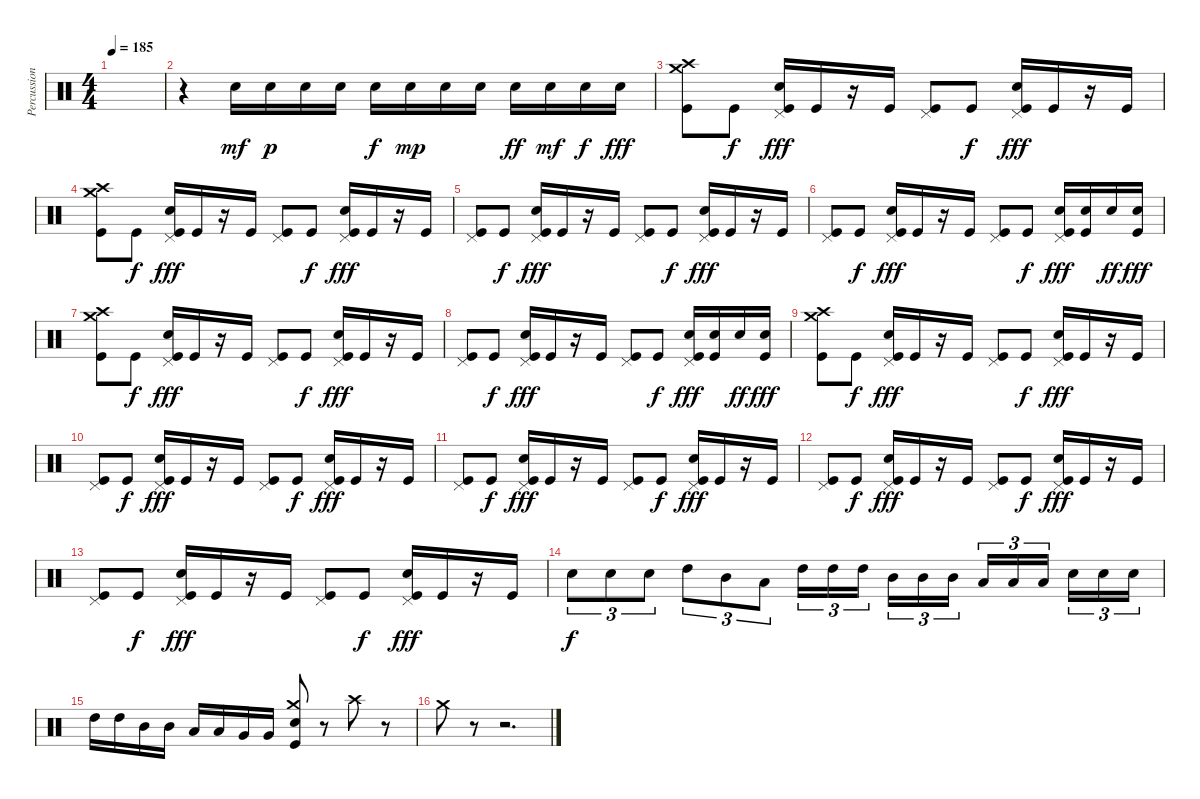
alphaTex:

\track ("Percussions" "Percussion") {instrument percussion}
\staff {score}
\articulation defaults
\ts (4 4)
\tempo 185
\clef neutral
\ks c
|
r.4 "Electric Snare (hit)".16{dy mf} "Electric Snare (hit)".16{dy p} "Electric Snare (hit)".16 "Electric Snare (hit)".16 "Electric Snare (hit)".16{dy f} "Electric Snare (hit)".16{dy mp} "Electric Snare (hit)".16 "Electric Snare (hit)".16 "Electric Snare (hit)".16{dy ff} "Electric Snare (hit)".16{dy mf} "Electric Snare (hit)".16{dy f} "Electric Snare (hit)".16{dy fff} |
("Crash medium (hit)" "Crash high (hit)" "Kick (hit)").8 "Kick (hit)".8{dy f} ("Pedal Hi-Hat (hit)" "Electric Snare (hit)" "Kick (hit)").16{dy fff} "Kick (hit)".16 r.16 "Kick (hit)".16 ("Pedal Hi-Hat (hit)" "Kick (hit)").8 "Kick (hit)".8{dy f} ("Pedal Hi-Hat (hit)" "Electric Snare (hit)" "Kick (hit)").16{dy fff} "Kick (hit)".16 r.16 "Kick (hit)".16 |
("Crash medium (hit)" "Crash high (hit)" "Kick (hit)").8 "Kick (hit)".8{dy f} ("Pedal Hi-Hat (hit)" "Electric Snare (hit)" "Kick (hit)").16{dy fff} "Kick (hit)".16 r.16 "Kick (hit)".16 ("Pedal Hi-Hat (hit)" "Kick (hit)").8 "Kick (hit)".8{dy f} ("Pedal Hi-Hat (hit)" "Electric Snare (hit)" "Kick (hit)").16{dy fff} "Kick (hit)".16 r.16 "Kick (hit)".16 |
("Pedal Hi-Hat (hit)" "Kick (hit)").8 "Kick (hit)".8{dy f} ("Pedal Hi-Hat (hit)" "Electric Snare (hit)" "Kick (hit)").16{dy fff} "Kick (hit)".16 r.16 "Kick (hit)".16 ("Pedal Hi-Hat (hit)" "Kick (hit)").8 "Kick (hit)".8{dy f} ("Pedal Hi-Hat (hit)" "Electric Snare (hit)" "Kick (hit)").16{dy fff} "Kick (hit)".16 r.16 "Kick (hit)".16 |
("Pedal Hi-Hat (hit)" "Kick (hit)").8 "Kick (hit)".8{dy f} ("Pedal Hi-Hat (hit)" "Electric Snare (hit)" "Kick (hit)").16{dy fff} "Kick (hit)".16 r.16 "Kick (hit)".16 ("Pedal Hi-Hat (hit)" "Kick (hit)").8 "Kick (hit)".8{dy f} ("Pedal Hi-Hat (hit)" "Electric Snare (hit)" "Kick (hit)").16{dy fff} ("Electric Snare (hit)" "Kick (hit)").16 "Electric Snare (hit)".16{dy ff} ("Electric Snare (hit)" "Kick (hit)").16{dy fff} |
("Crash medium (hit)" "Crash high (hit)" "Kick (hit)").8 "Kick (hit)".8{dy f} ("Pedal Hi-Hat (hit)" "Electric Snare (hit)" "Kick (hit)").16{dy fff} "Kick (hit)".16 r.16 "Kick (hit)".16 ("Pedal Hi-Hat (hit)" "Kick (hit)").8 "Kick (hit)".8{dy f} ("Pedal Hi-Hat (hit)" "Electric Snare (hit)" "Kick (hit)").16{dy fff} "Kick (hit)".16 r.16 "Kick (hit)".16 |
("Pedal Hi-Hat (hit)" "Kick (hit)").8 "Kick (hit)".8{dy f} ("Pedal Hi-Hat (hit)" "Electric Snare (hit)" "Kick (hit)").16{dy fff} "Kick (hit)".16 r.16 "Kick (hit)".16 ("Pedal Hi-Hat (hit)" "Kick (hit)").8 "Kick (hit)".8{dy f} ("Pedal Hi-Hat (hit)" "Electric Snare (hit)" "Kick (hit)").16{dy fff} ("Electric Snare (hit)" "Kick (hit)").16 "Electric Snare (hit)".16{dy ff} ("Electric Snare (hit)" "Kick (hit)").16{dy fff} |
("Crash medium (hit)" "Crash high (hit)" "Kick (hit)").8 "Kick (hit)".8{dy f} ("Pedal Hi-Hat (hit)" "Electric Snare (hit)" "Kick (hit)").16{dy fff} "Kick (hit)".16 r.16 "Kick (hit)".16 ("Pedal Hi-Hat (hit)" "Kick (hit)").8 "Kick (hit)".8{dy f} ("Pedal Hi-Hat (hit)" "Electric Snare (hit)" "Kick (hit)").16{dy fff} "Kick (hit)".16 r.16 "Kick (hit)".16 |
("Pedal Hi-Hat (hit)" "Kick (hit)").8 "Kick (hit)".8{dy f} ("Pedal Hi-Hat (hit)" "Electric Snare (hit)" "Kick (hit)").16{dy fff} "Kick (hit)".16 r.16 "Kick (hit)".16 ("Pedal Hi-Hat (hit)" "Kick (hit)").8 "Kick (hit)".8{dy f} ("Pedal Hi-Hat (hit)" "Electric Snare (hit)" "Kick (hit)").16{dy fff} "Kick (hit)".16 r.16 "Kick (hit)".16 |
("Pedal Hi-Hat (hit)" "Kick (hit)").8 "Kick (hit)".8{dy f} ("Pedal Hi-Hat (hit)" "Electric Snare (hit)" "Kick (hit)").16{dy fff} "Kick (hit)".16 r.16 "Kick (hit)".16 ("Pedal Hi-Hat (hit)" "Kick (hit)").8 "Kick (hit)".8{dy f} ("Pedal Hi-Hat (hit)" "Electric Snare (hit)" "Kick (hit)").16{dy fff} "Kick (hit)".16 r.16 "Kick (hit)".16 |
("Pedal Hi-Hat (hit)" "Kick (hit)").8 "Kick (hit)".8{dy f} ("Pedal Hi-Hat (hit)" "Electric Snare (hit)" "Kick (hit)").16{dy fff} "Kick (hit)".16 r.16 "Kick (hit)".16 ("Pedal Hi-Hat (hit)" "Kick (hit)").8 "Kick (hit)".8{dy f} ("Pedal Hi-Hat (hit)" "Electric Snare (hit)" "Kick (hit)").16{dy fff} "Kick (hit)".16 r.16 "Kick (hit)".16 |
("Pedal Hi-Hat (hit)" "Kick (hit)").8 "Kick (hit)".8{dy f} ("Pedal Hi-Hat (hit)" "Electric Snare (hit)" "Kick (hit)").16{dy fff} "Kick (hit)".16 r.16 "Kick (hit)".16 ("Pedal Hi-Hat (hit)" "Kick (hit)").8 "Kick (hit)".8{dy f} ("Pedal Hi-Hat (hit)" "Electric Snare (hit)" "Kick (hit)").16{dy fff} "Kick (hit)".16 r.16 "Kick (hit)".16 |
"Electric Snare (hit)".8{tu (3 2) dy f} "Electric Snare (hit)".8{tu (3 2)} "Electric Snare (hit)".8{tu (3 2)} "High Tom (hit)".8{tu (3 2)} "Mid Tom (hit)".8{tu (3 2)} "Low Tom (hit)".8{tu (3 2)} "High Tom (hit)".16{tu (3 2)} "High Tom (hit)".16{tu (3 2)} "High Tom (hit)".16{tu (3 2)} "Mid Tom (hit)".16{tu (3 2)} "Mid Tom (hit)".16{tu (3 2)} "Mid Tom (hit)".16{tu (3 2)} "Low Tom (hit)".16{tu (3 2)} "Low Tom (hit)".16{tu (3 2)} "Low Tom (hit)".16{tu (3 2)} "Electric Snare (hit)".16{tu (3 2)} "Electric Snare (hit)".16{tu (3 2)} "Electric Snare (hit)".16{tu (3 2)} |
"High Tom (hit)".16 "High Tom (hit)".16 "Mid Tom (hit)".16 "Mid Tom (hit)".16 "Low Tom (hit)".16 "Low Tom (hit)".16 "Very Low Tom (hit)".16 "Very Low Tom (hit)".16 ("Crash medium (hit)" "Electric Snare (hit)" "Kick (hit)").8 r.8{volume 0} "Crash high (hit)".8{volume 16} r.8{volume 0} |
"Crash medium (hit)".8{volume 16} r.8{volume 0} r.2{d volume 0}
